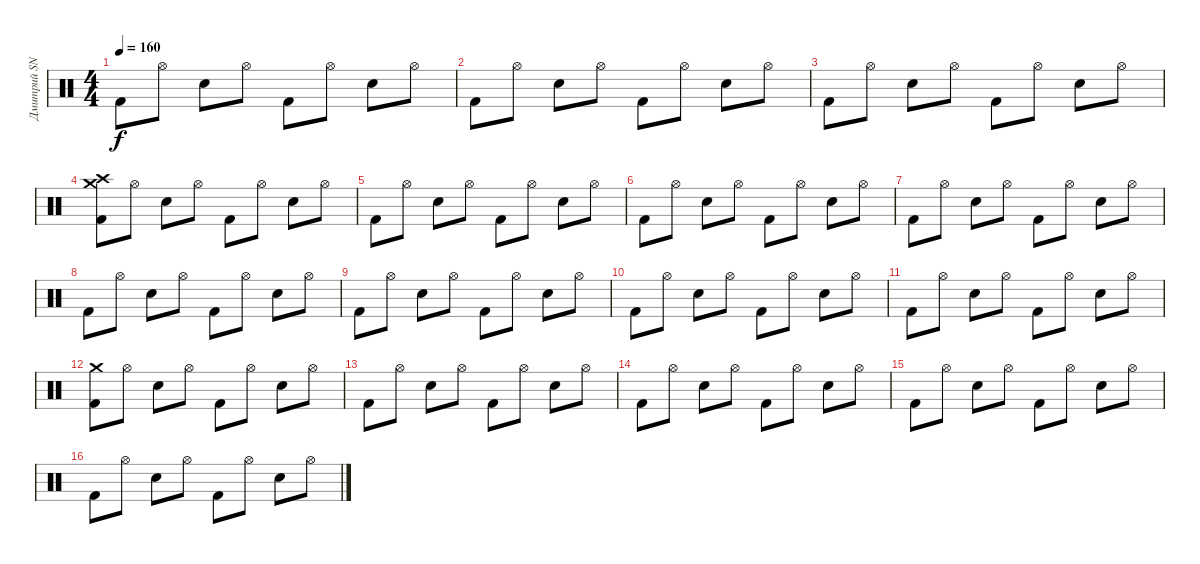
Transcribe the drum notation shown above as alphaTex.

\track ("Дмитрий SNAKE Хакимов" "Дмитрий SN") {instrument percussion}
\staff {score}
\articulation defaults
\ts (4 4)
\tempo 160
\clef neutral
\ks c "Kick (hit) 2".8{dy f} "Hi-Hat (open)".8 "Electric Snare (hit)".8 "Hi-Hat (open)".8 "Kick (hit) 2".8 "Hi-Hat (open)".8 "Electric Snare (hit)".8 "Hi-Hat (open)".8
|
"Kick (hit) 2".8 "Hi-Hat (open)".8 "Electric Snare (hit)".8 "Hi-Hat (open)".8 "Kick (hit) 2".8 "Hi-Hat (open)".8 "Electric Snare (hit)".8 "Hi-Hat (open)".8 |
"Kick (hit) 2".8 "Hi-Hat (open)".8 "Electric Snare (hit)".8 "Hi-Hat (open)".8 "Kick (hit) 2".8 "Hi-Hat (open)".8 "Electric Snare (hit)".8 "Hi-Hat (open)".8 |
("Crash high (hit)" "Crash medium (hit)" "Kick (hit) 2").8 "Hi-Hat (open)".8 "Electric Snare (hit)".8 "Hi-Hat (open)".8 "Kick (hit) 2".8 "Hi-Hat (open)".8 "Electric Snare (hit)".8 "Hi-Hat (open)".8 |
"Kick (hit) 2".8 "Hi-Hat (open)".8 "Electric Snare (hit)".8 "Hi-Hat (open)".8 "Kick (hit) 2".8 "Hi-Hat (open)".8 "Electric Snare (hit)".8 "Hi-Hat (open)".8 |
"Kick (hit) 2".8 "Hi-Hat (open)".8 "Electric Snare (hit)".8 "Hi-Hat (open)".8 "Kick (hit) 2".8 "Hi-Hat (open)".8 "Electric Snare (hit)".8 "Hi-Hat (open)".8 |
"Kick (hit) 2".8 "Hi-Hat (open)".8 "Electric Snare (hit)".8 "Hi-Hat (open)".8 "Kick (hit) 2".8 "Hi-Hat (open)".8 "Electric Snare (hit)".8 "Hi-Hat (open)".8 |
"Kick (hit) 2".8 "Hi-Hat (open)".8 "Electric Snare (hit)".8 "Hi-Hat (open)".8 "Kick (hit) 2".8 "Hi-Hat (open)".8 "Electric Snare (hit)".8 "Hi-Hat (open)".8 |
"Kick (hit) 2".8 "Hi-Hat (open)".8 "Electric Snare (hit)".8 "Hi-Hat (open)".8 "Kick (hit) 2".8 "Hi-Hat (open)".8 "Electric Snare (hit)".8 "Hi-Hat (open)".8 |
"Kick (hit) 2".8 "Hi-Hat (open)".8 "Electric Snare (hit)".8 "Hi-Hat (open)".8 "Kick (hit) 2".8 "Hi-Hat (open)".8 "Electric Snare (hit)".8 "Hi-Hat (open)".8 |
"Kick (hit) 2".8 "Hi-Hat (open)".8 "Electric Snare (hit)".8 "Hi-Hat (open)".8 "Kick (hit) 2".8 "Hi-Hat (open)".8 "Electric Snare (hit)".8 "Hi-Hat (open)".8 |
("Crash medium (hit)" "Kick (hit) 2").8 "Hi-Hat (open)".8 "Electric Snare (hit)".8 "Hi-Hat (open)".8 "Kick (hit) 2".8 "Hi-Hat (open)".8 "Electric Snare (hit)".8 "Hi-Hat (open)".8 |
"Kick (hit) 2".8 "Hi-Hat (open)".8 "Electric Snare (hit)".8 "Hi-Hat (open)".8 "Kick (hit) 2".8 "Hi-Hat (open)".8 "Electric Snare (hit)".8 "Hi-Hat (open)".8 |
"Kick (hit) 2".8 "Hi-Hat (open)".8 "Electric Snare (hit)".8 "Hi-Hat (open)".8 "Kick (hit) 2".8 "Hi-Hat (open)".8 "Electric Snare (hit)".8 "Hi-Hat (open)".8 |
"Kick (hit) 2".8 "Hi-Hat (open)".8 "Electric Snare (hit)".8 "Hi-Hat (open)".8 "Kick (hit) 2".8 "Hi-Hat (open)".8 "Electric Snare (hit)".8 "Hi-Hat (open)".8 |
"Kick (hit) 2".8 "Hi-Hat (open)".8 "Electric Snare (hit)".8 "Hi-Hat (open)".8 "Kick (hit) 2".8 "Hi-Hat (open)".8 "Electric Snare (hit)".8 "Hi-Hat (open)".8
